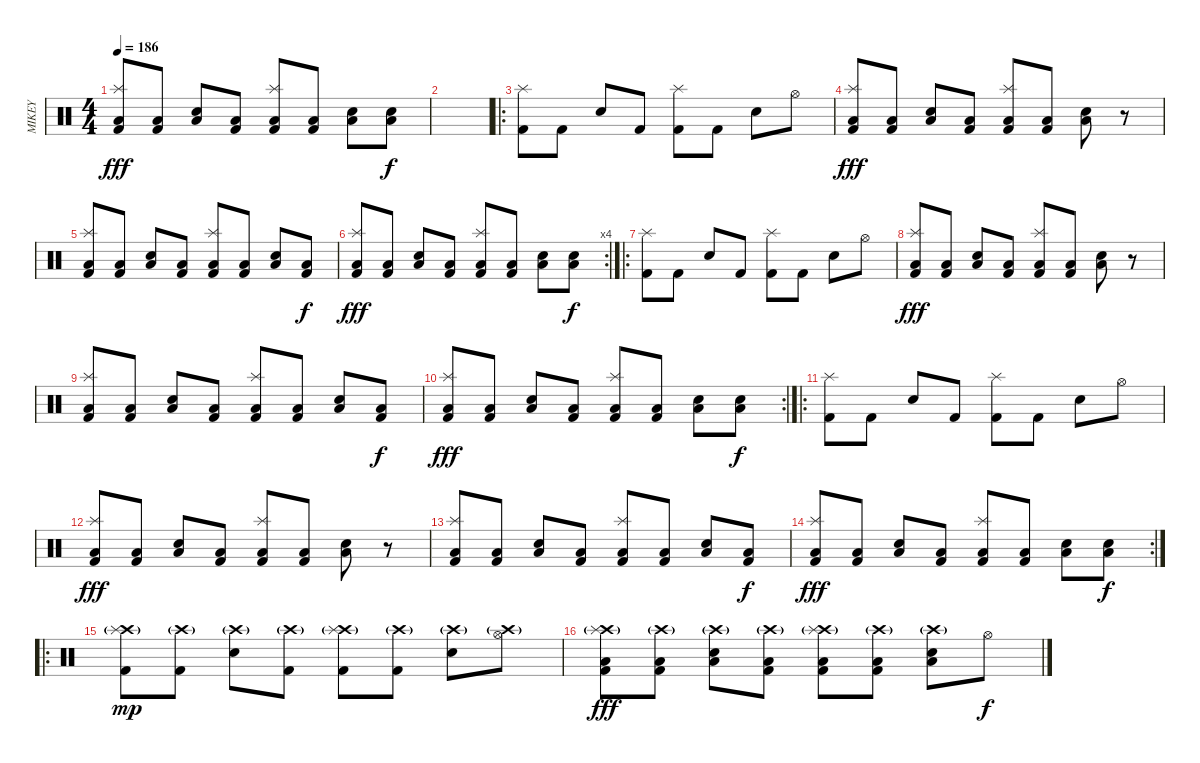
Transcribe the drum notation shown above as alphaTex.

\track ("MIKEY" "MIKEY") {instrument percussion}
\staff {score}
\articulation defaults
\ts (4 4)
\tempo 186
\clef neutral
\ks c
("Low Floor Tom (hit)" "Splash (hit)" "Kick (hit) 2").8{dy fff} ("Low Floor Tom (hit)" "Kick (hit) 2").8 ("Low Floor Tom (hit)" "Snare (hit) 2").8 ("Low Floor Tom (hit)" "Kick (hit) 2").8 ("Low Floor Tom (hit)" "Splash (hit)" "Kick (hit) 2").8 ("Low Floor Tom (hit)" "Kick (hit) 2").8 ("Low Floor Tom (hit)" "Snare (hit) 2").8 ("Low Floor Tom (hit)" "Snare (hit) 2").8{dy f} |
|
\ro
("Splash (hit)" "Kick (hit) 2").8 "Kick (hit) 2".8 "Snare (hit) 2".8 "Kick (hit) 2".8 ("Splash (hit)" "Kick (hit) 2").8 "Kick (hit) 2".8 "Snare (hit) 2".8 "Hi-Hat (open)".8 |
("Low Floor Tom (hit)" "Splash (hit)" "Kick (hit) 2").8{dy fff} ("Low Floor Tom (hit)" "Kick (hit) 2").8 ("Low Floor Tom (hit)" "Snare (hit) 2").8 ("Low Floor Tom (hit)" "Kick (hit) 2").8 ("Low Floor Tom (hit)" "Splash (hit)" "Kick (hit) 2").8 ("Low Floor Tom (hit)" "Kick (hit) 2").8 ("Low Floor Tom (hit)" "Snare (hit) 2").8 r.8 |
("Low Floor Tom (hit)" "Splash (hit)" "Kick (hit) 2").8 ("Low Floor Tom (hit)" "Kick (hit) 2").8 ("Low Floor Tom (hit)" "Snare (hit) 2").8 ("Low Floor Tom (hit)" "Kick (hit) 2").8 ("Low Floor Tom (hit)" "Splash (hit)" "Kick (hit) 2").8 ("Low Floor Tom (hit)" "Kick (hit) 2").8 ("Low Floor Tom (hit)" "Snare (hit) 2").8 ("Low Floor Tom (hit)" "Kick (hit) 2").8{dy f} |
\rc 4
("Low Floor Tom (hit)" "Splash (hit)" "Kick (hit) 2").8{dy fff} ("Low Floor Tom (hit)" "Kick (hit) 2").8 ("Low Floor Tom (hit)" "Snare (hit) 2").8 ("Low Floor Tom (hit)" "Kick (hit) 2").8 ("Low Floor Tom (hit)" "Splash (hit)" "Kick (hit) 2").8 ("Low Floor Tom (hit)" "Kick (hit) 2").8 ("Low Floor Tom (hit)" "Snare (hit) 2").8 ("Low Floor Tom (hit)" "Snare (hit) 2").8{dy f} |
\ro
("Splash (hit)" "Kick (hit) 2").8 "Kick (hit) 2".8 "Snare (hit) 2".8 "Kick (hit) 2".8 ("Splash (hit)" "Kick (hit) 2").8 "Kick (hit) 2".8 "Snare (hit) 2".8 "Hi-Hat (open)".8 |
("Low Floor Tom (hit)" "Splash (hit)" "Kick (hit) 2").8{dy fff} ("Low Floor Tom (hit)" "Kick (hit) 2").8 ("Low Floor Tom (hit)" "Snare (hit) 2").8 ("Low Floor Tom (hit)" "Kick (hit) 2").8 ("Low Floor Tom (hit)" "Splash (hit)" "Kick (hit) 2").8 ("Low Floor Tom (hit)" "Kick (hit) 2").8 ("Low Floor Tom (hit)" "Snare (hit) 2").8 r.8 |
("Low Floor Tom (hit)" "Splash (hit)" "Kick (hit) 2").8 ("Low Floor Tom (hit)" "Kick (hit) 2").8 ("Low Floor Tom (hit)" "Snare (hit) 2").8 ("Low Floor Tom (hit)" "Kick (hit) 2").8 ("Low Floor Tom (hit)" "Splash (hit)" "Kick (hit) 2").8 ("Low Floor Tom (hit)" "Kick (hit) 2").8 ("Low Floor Tom (hit)" "Snare (hit) 2").8 ("Low Floor Tom (hit)" "Kick (hit) 2").8{dy f} |
\rc 2
("Low Floor Tom (hit)" "Splash (hit)" "Kick (hit) 2").8{dy fff} ("Low Floor Tom (hit)" "Kick (hit) 2").8 ("Low Floor Tom (hit)" "Snare (hit) 2").8 ("Low Floor Tom (hit)" "Kick (hit) 2").8 ("Low Floor Tom (hit)" "Splash (hit)" "Kick (hit) 2").8 ("Low Floor Tom (hit)" "Kick (hit) 2").8 ("Low Floor Tom (hit)" "Snare (hit) 2").8 ("Low Floor Tom (hit)" "Snare (hit) 2").8{dy f} |
\ro
("Splash (hit)" "Kick (hit) 2").8 "Kick (hit) 2".8 "Snare (hit) 2".8 "Kick (hit) 2".8 ("Splash (hit)" "Kick (hit) 2").8 "Kick (hit) 2".8 "Snare (hit) 2".8 "Hi-Hat (open)".8 |
("Low Floor Tom (hit)" "Splash (hit)" "Kick (hit) 2").8{dy fff} ("Low Floor Tom (hit)" "Kick (hit) 2").8 ("Low Floor Tom (hit)" "Snare (hit) 2").8 ("Low Floor Tom (hit)" "Kick (hit) 2").8 ("Low Floor Tom (hit)" "Splash (hit)" "Kick (hit) 2").8 ("Low Floor Tom (hit)" "Kick (hit) 2").8 ("Low Floor Tom (hit)" "Snare (hit) 2").8 r.8 |
("Low Floor Tom (hit)" "Splash (hit)" "Kick (hit) 2").8 ("Low Floor Tom (hit)" "Kick (hit) 2").8 ("Low Floor Tom (hit)" "Snare (hit) 2").8 ("Low Floor Tom (hit)" "Kick (hit) 2").8 ("Low Floor Tom (hit)" "Splash (hit)" "Kick (hit) 2").8 ("Low Floor Tom (hit)" "Kick (hit) 2").8 ("Low Floor Tom (hit)" "Snare (hit) 2").8 ("Low Floor Tom (hit)" "Kick (hit) 2").8{dy f} |
\rc 2
("Low Floor Tom (hit)" "Splash (hit)" "Kick (hit) 2").8{dy fff} ("Low Floor Tom (hit)" "Kick (hit) 2").8 ("Low Floor Tom (hit)" "Snare (hit) 2").8 ("Low Floor Tom (hit)" "Kick (hit) 2").8 ("Low Floor Tom (hit)" "Splash (hit)" "Kick (hit) 2").8 ("Low Floor Tom (hit)" "Kick (hit) 2").8 ("Low Floor Tom (hit)" "Snare (hit) 2").8 ("Low Floor Tom (hit)" "Snare (hit) 2").8{dy f} |
\ro
("Crash high (hit)"{g} "Splash (hit)" "Kick (hit) 2").8{dy mp} ("Crash high (hit)"{g} "Kick (hit) 2").8 ("Crash high (hit)"{g} "Snare (hit) 2").8 ("Crash high (hit)"{g} "Kick (hit) 2").8 ("Crash high (hit)"{g} "Splash (hit)" "Kick (hit) 2").8 ("Crash high (hit)"{g} "Kick (hit) 2").8 ("Crash high (hit)"{g} "Snare (hit) 2").8 ("Crash high (hit)"{g} "Hi-Hat (open)").8 |
("Crash high (hit)"{g} "Low Floor Tom (hit)" "Splash (hit)" "Kick (hit) 2").8{dy fff} ("Crash high (hit)"{g} "Low Floor Tom (hit)" "Kick (hit) 2").8 ("Crash high (hit)"{g} "Low Floor Tom (hit)" "Snare (hit) 2").8 ("Crash high (hit)"{g} "Low Floor Tom (hit)" "Kick (hit) 2").8 ("Crash high (hit)"{g} "Low Floor Tom (hit)" "Splash (hit)" "Kick (hit) 2").8 ("Crash high (hit)"{g} "Low Floor Tom (hit)" "Kick (hit) 2").8 ("Crash high (hit)"{g} "Low Floor Tom (hit)" "Snare (hit) 2").8 "Hi-Hat (open)".8{dy f}
